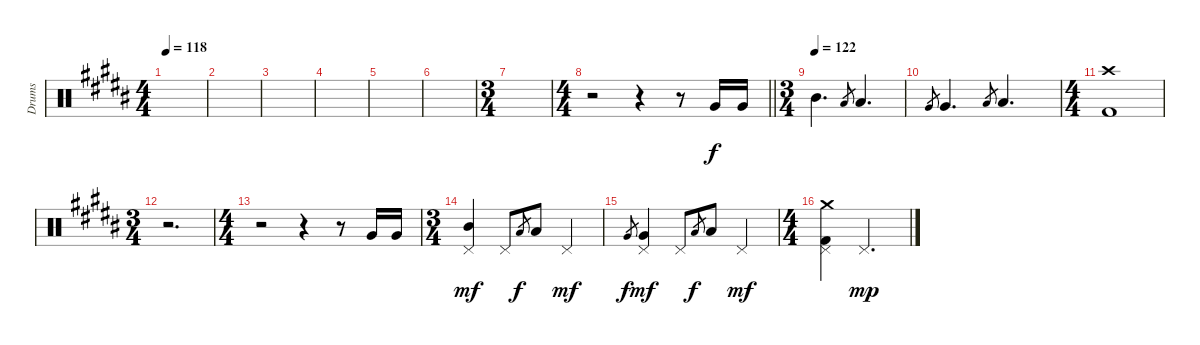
\track ("Drums" "Drums") {instrument percussion}
\staff {score}
\articulation defaults
\ts (4 4)
\tempo 118
\clef neutral
\ks b
|
|
|
|
|
|
\ts (3 4)
|
\ts (4 4)
\barLineRight lightlight
r.2 r.4 r.8 "Very Low Tom (hit)".16 "Very Low Tom (hit)".16 |
\ts (3 4)
\tempo (122)
"Mid Tom (hit)".4{d} "Low Tom (hit)".8{gr} "Low Tom (hit)".4{d} |
"Very Low Tom (hit)".8{gr} "Very Low Tom (hit)".4{d} "Low Floor Tom (hit)".8{gr} "Low Floor Tom (hit)".4{d} |
\ts (4 4)
("Crash high (hit)" "Kick (hit) 2").1 |
\ts (3 4)
r.2{d} |
\ts (4 4)
r.2 r.4 r.8 "Very Low Tom (hit)".16 "Very Low Tom (hit)".16 |
\ts (3 4)
("Mid Tom (hit)" "Pedal Hi-Hat (hit)").4{dy mf} "Pedal Hi-Hat (hit)".8 "Low Tom (hit)".8{gr dy f} "Low Tom (hit)".8 "Pedal Hi-Hat (hit)".4{dy mf} |
"Very Low Tom (hit)".8{gr dy f} ("Very Low Tom (hit)" "Pedal Hi-Hat (hit)").4{dy mf} "Pedal Hi-Hat (hit)".8 "Low Floor Tom (hit)".8{gr dy f} "Low Floor Tom (hit)".8 "Pedal Hi-Hat (hit)".4{dy mf} |
\ts (4 4)
("Crash medium (hit)" "Pedal Hi-Hat (hit)" "Kick (hit) 2").4 "Pedal Hi-Hat (hit)".2{d dy mp}
